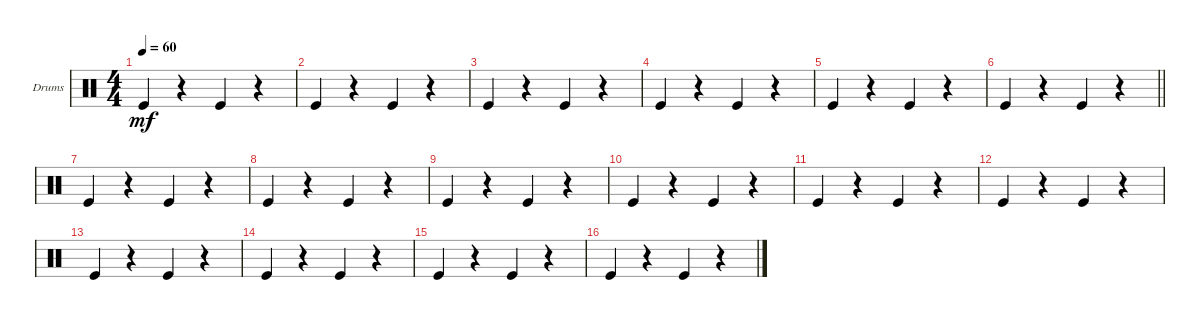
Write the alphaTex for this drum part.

\defaultSystemsLayout 4
\bracketExtendMode groupsimilarinstruments
\firstSystemTrackNameOrientation horizontal
\otherSystemsTrackNameOrientation horizontal
\track ("Drumkit" "Drums") {instrument percussion}
\staff {score}
\articulation defaults
\ts (4 4)
\tempo 60
\clef neutral
\ks c "Kick (hit)".4{dy mf}
r.4 "Kick (hit)".4 r.4 |
"Kick (hit)".4 r.4 "Kick (hit)".4 r.4 |
"Kick (hit)".4 r.4 "Kick (hit)".4 r.4 |
"Kick (hit)".4 r.4 "Kick (hit)".4 r.4 |
"Kick (hit)".4 r.4 "Kick (hit)".4 r.4 |
\barLineRight lightlight "Kick (hit)".4
r.4 "Kick (hit)".4 r.4 |
"Kick (hit)".4 r.4 "Kick (hit)".4 r.4 |
"Kick (hit)".4 r.4 "Kick (hit)".4 r.4 |
"Kick (hit)".4 r.4 "Kick (hit)".4 r.4 |
"Kick (hit)".4 r.4 "Kick (hit)".4 r.4 |
"Kick (hit)".4 r.4 "Kick (hit)".4 r.4 |
"Kick (hit)".4 r.4 "Kick (hit)".4 r.4 |
"Kick (hit)".4 r.4 "Kick (hit)".4 r.4 |
"Kick (hit)".4 r.4 "Kick (hit)".4 r.4 |
"Kick (hit)".4 r.4 "Kick (hit)".4 r.4 |
"Kick (hit)".4 r.4 "Kick (hit)".4 r.4
